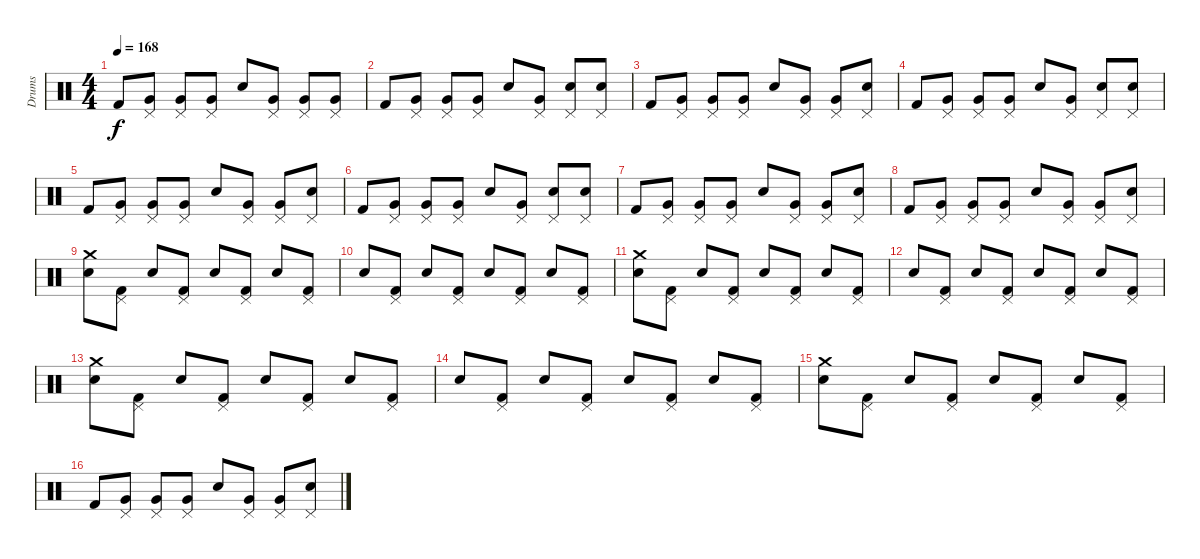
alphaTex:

\track ("Drums" "Drums") {instrument percussion}
\staff {score}
\articulation defaults
\ts (4 4)
\tempo 168
\clef neutral
\ks c "Kick (hit) 2".8{dy f}
("Pedal Hi-Hat (hit)" "Very Low Tom (hit)").8 ("Pedal Hi-Hat (hit)" "Very Low Tom (hit)").8 ("Pedal Hi-Hat (hit)" "Very Low Tom (hit)").8 "Electric Snare (hit)".8 ("Pedal Hi-Hat (hit)" "Very Low Tom (hit)").8 ("Pedal Hi-Hat (hit)" "Very Low Tom (hit)").8 ("Pedal Hi-Hat (hit)" "Very Low Tom (hit)").8 |
"Kick (hit) 2".8 ("Pedal Hi-Hat (hit)" "Very Low Tom (hit)").8 ("Pedal Hi-Hat (hit)" "Very Low Tom (hit)").8 ("Pedal Hi-Hat (hit)" "Very Low Tom (hit)").8 "Electric Snare (hit)".8 ("Pedal Hi-Hat (hit)" "Very Low Tom (hit)").8 ("Pedal Hi-Hat (hit)" "Electric Snare (hit)").8 ("Pedal Hi-Hat (hit)" "Electric Snare (hit)").8 |
"Kick (hit) 2".8 ("Pedal Hi-Hat (hit)" "Very Low Tom (hit)").8 ("Pedal Hi-Hat (hit)" "Very Low Tom (hit)").8 ("Pedal Hi-Hat (hit)" "Very Low Tom (hit)").8 "Electric Snare (hit)".8 ("Pedal Hi-Hat (hit)" "Very Low Tom (hit)").8 ("Pedal Hi-Hat (hit)" "Very Low Tom (hit)").8 ("Pedal Hi-Hat (hit)" "Electric Snare (hit)").8 |
"Kick (hit) 2".8 ("Pedal Hi-Hat (hit)" "Very Low Tom (hit)").8 ("Pedal Hi-Hat (hit)" "Very Low Tom (hit)").8 ("Pedal Hi-Hat (hit)" "Very Low Tom (hit)").8 "Electric Snare (hit)".8 ("Pedal Hi-Hat (hit)" "Very Low Tom (hit)").8 ("Pedal Hi-Hat (hit)" "Electric Snare (hit)").8 ("Pedal Hi-Hat (hit)" "Electric Snare (hit)").8 |
"Kick (hit) 2".8 ("Pedal Hi-Hat (hit)" "Very Low Tom (hit)").8 ("Pedal Hi-Hat (hit)" "Very Low Tom (hit)").8 ("Pedal Hi-Hat (hit)" "Very Low Tom (hit)").8 "Electric Snare (hit)".8 ("Pedal Hi-Hat (hit)" "Very Low Tom (hit)").8 ("Pedal Hi-Hat (hit)" "Very Low Tom (hit)").8 ("Pedal Hi-Hat (hit)" "Electric Snare (hit)").8 |
"Kick (hit) 2".8 ("Pedal Hi-Hat (hit)" "Very Low Tom (hit)").8 ("Pedal Hi-Hat (hit)" "Very Low Tom (hit)").8 ("Pedal Hi-Hat (hit)" "Very Low Tom (hit)").8 "Electric Snare (hit)".8 ("Pedal Hi-Hat (hit)" "Very Low Tom (hit)").8 ("Pedal Hi-Hat (hit)" "Electric Snare (hit)").8 ("Pedal Hi-Hat (hit)" "Electric Snare (hit)").8 |
"Kick (hit) 2".8 ("Pedal Hi-Hat (hit)" "Very Low Tom (hit)").8 ("Pedal Hi-Hat (hit)" "Very Low Tom (hit)").8 ("Pedal Hi-Hat (hit)" "Very Low Tom (hit)").8 "Electric Snare (hit)".8 ("Pedal Hi-Hat (hit)" "Very Low Tom (hit)").8 ("Pedal Hi-Hat (hit)" "Very Low Tom (hit)").8 ("Pedal Hi-Hat (hit)" "Electric Snare (hit)").8 |
"Kick (hit) 2".8 ("Pedal Hi-Hat (hit)" "Very Low Tom (hit)").8 ("Pedal Hi-Hat (hit)" "Very Low Tom (hit)").8 ("Pedal Hi-Hat (hit)" "Very Low Tom (hit)").8 "Electric Snare (hit)".8 ("Pedal Hi-Hat (hit)" "Very Low Tom (hit)").8 ("Pedal Hi-Hat (hit)" "Very Low Tom (hit)").8 ("Pedal Hi-Hat (hit)" "Electric Snare (hit)").8 |
("Crash medium (hit)" "Electric Snare (hit)").8 ("Pedal Hi-Hat (hit)" "Kick (hit) 2").8 "Electric Snare (hit)".8 ("Pedal Hi-Hat (hit)" "Kick (hit) 2").8 "Electric Snare (hit)".8 ("Pedal Hi-Hat (hit)" "Kick (hit) 2").8 "Electric Snare (hit)".8 ("Pedal Hi-Hat (hit)" "Kick (hit) 2").8 |
"Electric Snare (hit)".8 ("Pedal Hi-Hat (hit)" "Kick (hit) 2").8 "Electric Snare (hit)".8 ("Pedal Hi-Hat (hit)" "Kick (hit) 2").8 "Electric Snare (hit)".8 ("Pedal Hi-Hat (hit)" "Kick (hit) 2").8 "Electric Snare (hit)".8 ("Pedal Hi-Hat (hit)" "Kick (hit) 2").8 |
("Crash medium (hit)" "Electric Snare (hit)").8 ("Pedal Hi-Hat (hit)" "Kick (hit) 2").8 "Electric Snare (hit)".8 ("Pedal Hi-Hat (hit)" "Kick (hit) 2").8 "Electric Snare (hit)".8 ("Pedal Hi-Hat (hit)" "Kick (hit) 2").8 "Electric Snare (hit)".8 ("Pedal Hi-Hat (hit)" "Kick (hit) 2").8 |
"Electric Snare (hit)".8 ("Pedal Hi-Hat (hit)" "Kick (hit) 2").8 "Electric Snare (hit)".8 ("Pedal Hi-Hat (hit)" "Kick (hit) 2").8 "Electric Snare (hit)".8 ("Pedal Hi-Hat (hit)" "Kick (hit) 2").8 "Electric Snare (hit)".8 ("Pedal Hi-Hat (hit)" "Kick (hit) 2").8 |
("Crash medium (hit)" "Electric Snare (hit)").8 ("Pedal Hi-Hat (hit)" "Kick (hit) 2").8 "Electric Snare (hit)".8 ("Pedal Hi-Hat (hit)" "Kick (hit) 2").8 "Electric Snare (hit)".8 ("Pedal Hi-Hat (hit)" "Kick (hit) 2").8 "Electric Snare (hit)".8 ("Pedal Hi-Hat (hit)" "Kick (hit) 2").8 |
"Electric Snare (hit)".8 ("Pedal Hi-Hat (hit)" "Kick (hit) 2").8 "Electric Snare (hit)".8 ("Pedal Hi-Hat (hit)" "Kick (hit) 2").8 "Electric Snare (hit)".8 ("Pedal Hi-Hat (hit)" "Kick (hit) 2").8 "Electric Snare (hit)".8 ("Pedal Hi-Hat (hit)" "Kick (hit) 2").8 |
("Crash medium (hit)" "Electric Snare (hit)").8 ("Pedal Hi-Hat (hit)" "Kick (hit) 2").8 "Electric Snare (hit)".8 ("Pedal Hi-Hat (hit)" "Kick (hit) 2").8 "Electric Snare (hit)".8 ("Pedal Hi-Hat (hit)" "Kick (hit) 2").8 "Electric Snare (hit)".8 ("Pedal Hi-Hat (hit)" "Kick (hit) 2").8 |
"Kick (hit) 2".8 ("Pedal Hi-Hat (hit)" "Very Low Tom (hit)").8 ("Pedal Hi-Hat (hit)" "Very Low Tom (hit)").8 ("Pedal Hi-Hat (hit)" "Very Low Tom (hit)").8 "Electric Snare (hit)".8 ("Pedal Hi-Hat (hit)" "Very Low Tom (hit)").8 ("Pedal Hi-Hat (hit)" "Very Low Tom (hit)").8 ("Pedal Hi-Hat (hit)" "Electric Snare (hit)").8
